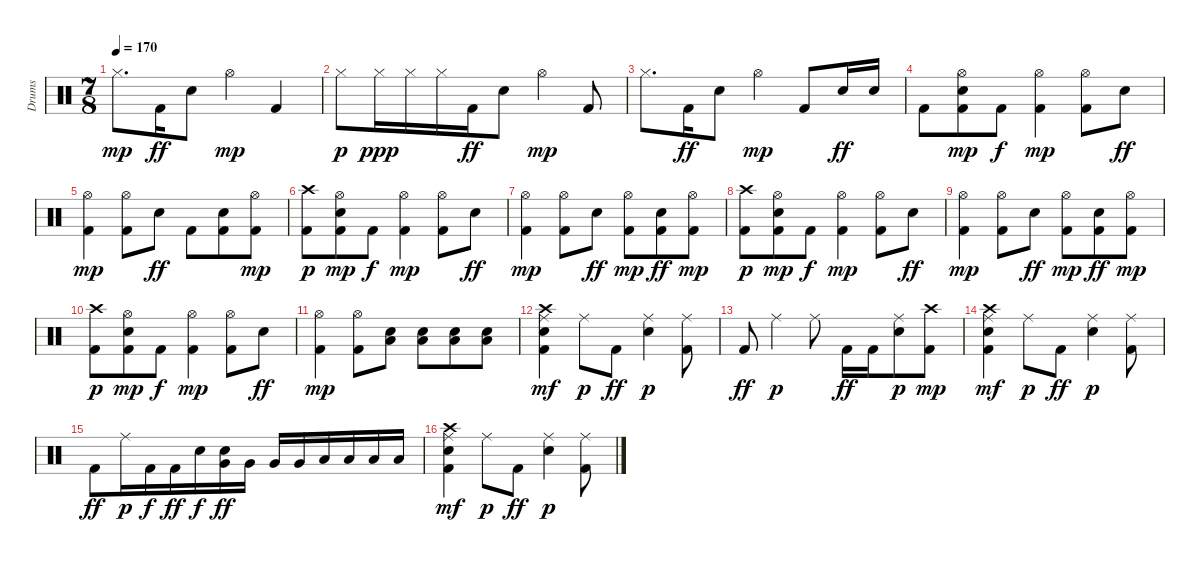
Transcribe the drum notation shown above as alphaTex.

\track ("Drums" "Drums") {instrument percussion}
\staff {score}
\articulation defaults
\ts (7 8)
\tempo 170
\clef neutral
\ks c "Hi-Hat (closed)".8{d dy mp} "Kick (hit) 2".16{dy ff} "Electric Snare (hit)".8 "Hi-Hat (open)".4{dy mp} "Kick (hit) 2".4
|
"Hi-Hat (closed)".8{dy p} "Hi-Hat (closed)".16{dy ppp} "Hi-Hat (closed)".16 "Hi-Hat (closed)".16 "Kick (hit) 2".16{dy ff} "Electric Snare (hit)".8 "Hi-Hat (open)".4{dy mp} "Kick (hit) 2".8 |
"Hi-Hat (closed)".8{d} "Kick (hit) 2".16{dy ff} "Electric Snare (hit)".8 "Hi-Hat (open)".4{dy mp} "Kick (hit) 2".8 "Electric Snare (hit)".16{dy ff} "Electric Snare (hit)".16 |
"Kick (hit) 2".8 ("Kick (hit) 2" "Electric Snare (hit)" "Hi-Hat (open)").8{dy mp} "Kick (hit) 2".8{dy f} ("Kick (hit) 2" "Hi-Hat (open)").4{dy mp} ("Kick (hit) 2" "Hi-Hat (open)").8 "Electric Snare (hit)".8{dy ff} |
("Kick (hit) 2" "Hi-Hat (open)").4{dy mp} ("Kick (hit) 2" "Hi-Hat (open)").8 "Electric Snare (hit)".8{dy ff} "Kick (hit) 2".8 ("Kick (hit) 2" "Electric Snare (hit)").8 ("Kick (hit) 2" "Hi-Hat (open)").8{dy mp} |
("Kick (hit) 2" "Crash high (hit)").8{dy p} ("Kick (hit) 2" "Electric Snare (hit)" "Hi-Hat (open)").8{dy mp} "Kick (hit) 2".8{dy f} ("Kick (hit) 2" "Hi-Hat (open)").4{dy mp} ("Kick (hit) 2" "Hi-Hat (open)").8 "Electric Snare (hit)".8{dy ff} |
("Kick (hit) 2" "Hi-Hat (open)").4{dy mp} ("Kick (hit) 2" "Hi-Hat (open)").8 "Electric Snare (hit)".8{dy ff} ("Kick (hit) 2" "Hi-Hat (open)").8{dy mp} ("Kick (hit) 2" "Electric Snare (hit)").8{dy ff} ("Kick (hit) 2" "Hi-Hat (open)").8{dy mp} |
("Kick (hit) 2" "Crash high (hit)").8{dy p} ("Kick (hit) 2" "Electric Snare (hit)" "Hi-Hat (open)").8{dy mp} "Kick (hit) 2".8{dy f} ("Kick (hit) 2" "Hi-Hat (open)").4{dy mp} ("Kick (hit) 2" "Hi-Hat (open)").8 "Electric Snare (hit)".8{dy ff} |
("Kick (hit) 2" "Hi-Hat (open)").4{dy mp} ("Kick (hit) 2" "Hi-Hat (open)").8 "Electric Snare (hit)".8{dy ff} ("Kick (hit) 2" "Hi-Hat (open)").8{dy mp} ("Kick (hit) 2" "Electric Snare (hit)").8{dy ff} ("Kick (hit) 2" "Hi-Hat (open)").8{dy mp} |
("Kick (hit) 2" "Crash high (hit)").8{dy p} ("Kick (hit) 2" "Electric Snare (hit)" "Hi-Hat (open)").8{dy mp} "Kick (hit) 2".8{dy f} ("Kick (hit) 2" "Hi-Hat (open)").4{dy mp} ("Kick (hit) 2" "Hi-Hat (open)").8 "Electric Snare (hit)".8{dy ff} |
("Kick (hit) 2" "Hi-Hat (open)").4{dy mp} ("Kick (hit) 2" "Hi-Hat (open)").8 ("Electric Snare (hit)" "Low Tom (hit)").8 ("Electric Snare (hit)" "Low Tom (hit)").8 ("Electric Snare (hit)" "Low Tom (hit)").8 ("Electric Snare (hit)" "Low Tom (hit)").8 |
("Kick (hit) 2" "Electric Snare (hit)" "Ride (middle)" "Crash high (hit)").4{dy mf} "Ride (middle)".8{dy p} "Kick (hit) 2".8{dy ff} ("Electric Snare (hit)" "Ride (middle)").4{dy p} ("Kick (hit) 2" "Ride (middle)").8 |
"Kick (hit) 2".8{dy ff} "Ride (middle)".4{dy p} "Ride (middle)".8 "Kick (hit) 2".16{dy ff} "Kick (hit) 2".16 ("Electric Snare (hit)" "Ride (middle)").8{dy p} ("Kick (hit) 2" "Crash high (hit)").8{dy mp} |
("Kick (hit) 2" "Electric Snare (hit)" "Ride (middle)" "Crash high (hit)").4{dy mf} "Ride (middle)".8{dy p} "Kick (hit) 2".8{dy ff} ("Electric Snare (hit)" "Ride (middle)").4{dy p} ("Kick (hit) 2" "Ride (middle)").8 |
"Kick (hit) 2".8{dy ff} "Ride (middle)".16{dy p} "Kick (hit) 2".16{dy f} "Kick (hit) 2".16{dy ff} "Electric Snare (hit)".16{dy f} ("Electric Snare (hit)" "Very Low Tom (hit)").16{dy ff} "Very Low Tom (hit)".16 "Very Low Tom (hit)".16 "Very Low Tom (hit)".16 "Low Floor Tom (hit)".16 "Low Floor Tom (hit)".16 "Low Floor Tom (hit)".16 "Low Floor Tom (hit)".16 |
("Kick (hit) 2" "Electric Snare (hit)" "Ride (middle)" "Crash high (hit)").4{dy mf} "Ride (middle)".8{dy p} "Kick (hit) 2".8{dy ff} ("Electric Snare (hit)" "Ride (middle)").4{dy p} ("Kick (hit) 2" "Ride (middle)").8
